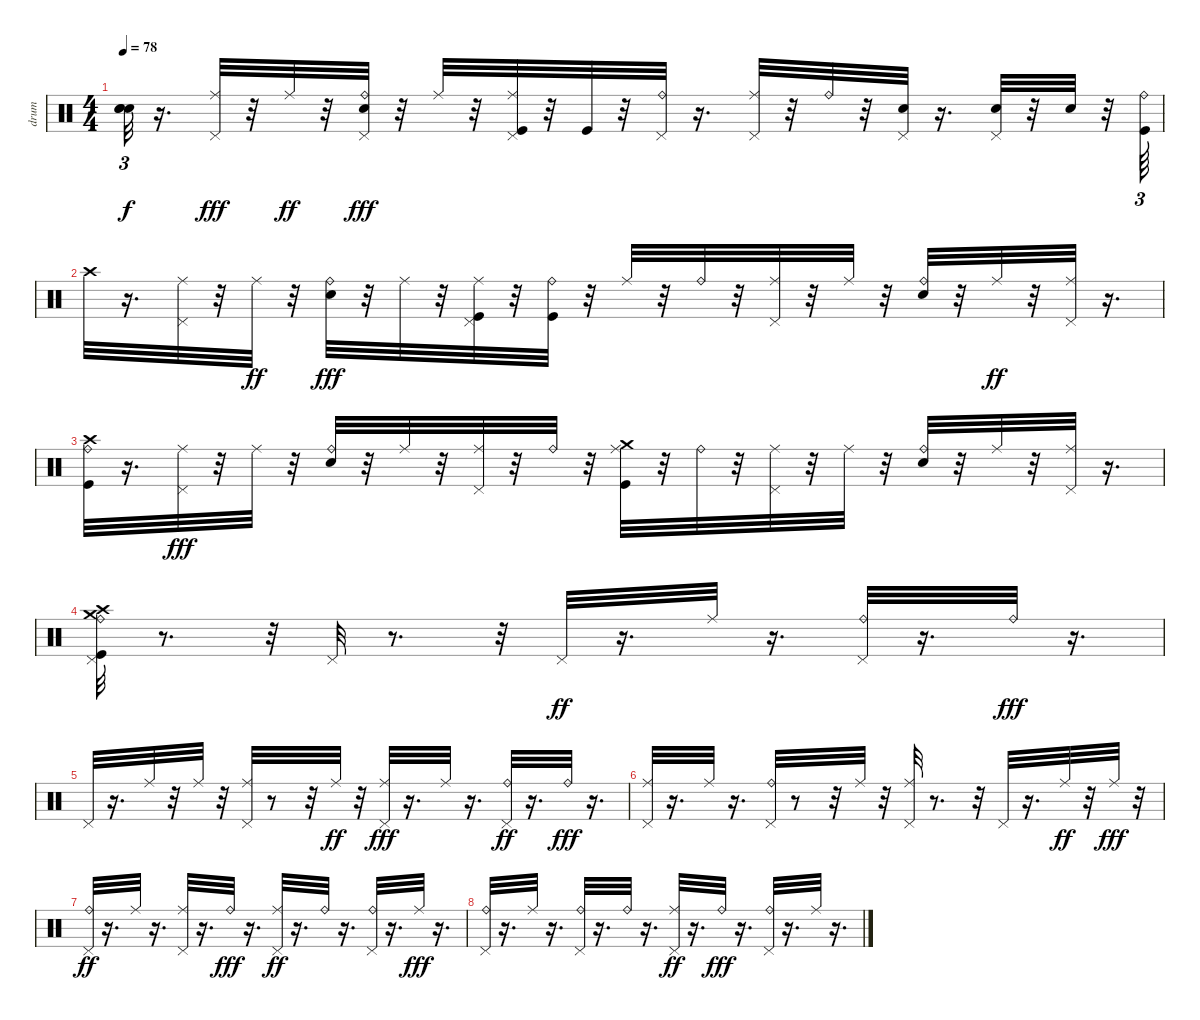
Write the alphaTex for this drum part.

\track ("drum" "drum") {instrument percussion}
\staff {score}
\articulation defaults
\ts (4 4)
\tempo 78
\clef neutral
\ks c
("Snare (hit)"{t} "Snare (hit)"{t} "Snare (hit)"{t}).32{tu (3 2) dy f} r.16{d} ("Ride (middle)" "Pedal Hi-Hat (hit)").32{dy fff} r.32 "Ride (middle)".32{dy ff} r.32 ("Ride (bell)" "Pedal Hi-Hat (hit)" "Electric Snare (hit)").32{dy fff} r.32 "Ride (middle)".32 r.32 ("Ride (middle)" "Pedal Hi-Hat (hit)" "Kick (hit)").32 r.32 "Kick (hit)".32 r.32 ("Ride (bell)" "Pedal Hi-Hat (hit)").32 r.16{d} ("Ride (middle)" "Pedal Hi-Hat (hit)").32 r.32 "Ride (bell)".32 r.32 ("Pedal Hi-Hat (hit)" "Electric Snare (hit)").32 r.16{d} ("Pedal Hi-Hat (hit)" "Electric Snare (hit)").32 r.32 "Electric Snare (hit)".32 r.32 ("Ride (bell)" "Kick (hit)").64{tu (3 2)} |
"Crash high (hit)".32 r.16{d} ("Ride (middle)" "Pedal Hi-Hat (hit)").32 r.32 "Ride (middle)".32{dy ff} r.32 ("Ride (bell)" "Electric Snare (hit)").32{dy fff} r.32 "Ride (middle)".32 r.32 ("Ride (middle)" "Pedal Hi-Hat (hit)" "Kick (hit)").32 r.32 ("Ride (bell)" "Kick (hit)").32 r.32 "Ride (middle)".32 r.32 "Ride (bell)".32 r.32 ("Ride (middle)" "Pedal Hi-Hat (hit)").32 r.32 "Ride (middle)".32 r.32 ("Ride (bell)" "Electric Snare (hit)").32 r.32 "Ride (middle)".32{dy ff} r.32 ("Ride (middle)" "Pedal Hi-Hat (hit)").32 r.16{d} |
("Ride (bell)" "Crash high (hit)" "Kick (hit)").32 r.16{d} ("Ride (middle)" "Pedal Hi-Hat (hit)").32{dy fff} r.32 "Ride (middle)".32 r.32 ("Ride (bell)" "Electric Snare (hit)").32 r.32 "Ride (middle)".32 r.32 ("Ride (middle)" "Pedal Hi-Hat (hit)").32 r.32 "Ride (bell)".32 r.32 ("Ride (middle)" "Crash medium (hit)" "Kick (hit)").32 r.32 "Ride (bell)".32 r.32 ("Ride (middle)" "Pedal Hi-Hat (hit)").32 r.32 "Ride (middle)".32 r.32 ("Ride (bell)" "Electric Snare (hit)").32 r.32 "Ride (middle)".32 r.32 ("Ride (middle)" "Pedal Hi-Hat (hit)").32 r.16{d} |
("Ride (bell)" "Pedal Hi-Hat (hit)" "Crash high (hit)" "Kick (hit)" "Crash medium (hit)").32 r.8{d} r.32 "Pedal Hi-Hat (hit)".32 r.8{d} r.32 "Pedal Hi-Hat (hit)".32{dy ff} r.16{d} "Ride (middle)".32 r.16{d} ("Ride (bell)" "Pedal Hi-Hat (hit)").32 r.16{d} "Ride (bell)".32{dy fff} r.16{d} |
"Pedal Hi-Hat (hit)".32 r.16{d} "Ride (middle)".32 r.32 "Ride (middle)".32 r.32 ("Ride (middle)" "Pedal Hi-Hat (hit)").32 r.8 r.32 "Ride (middle)".32{dy ff} r.32 ("Ride (middle)" "Pedal Hi-Hat (hit)").32{dy fff} r.16{d} "Ride (middle)".32 r.16{d} ("Ride (bell)" "Pedal Hi-Hat (hit)").32{dy ff} r.16{d} "Ride (bell)".32{dy fff} r.16{d} |
("Ride (middle)" "Pedal Hi-Hat (hit)").32 r.16{d} "Ride (middle)".32 r.16{d} ("Ride (bell)" "Pedal Hi-Hat (hit)").32 r.8 r.32 "Ride (middle)".32 r.32 ("Ride (middle)" "Pedal Hi-Hat (hit)").32 r.8{d} r.32 "Pedal Hi-Hat (hit)".32 r.16{d} "Ride (middle)".32{dy ff} r.32 "Ride (middle)".32{dy fff} r.32 |
("Ride (bell)" "Pedal Hi-Hat (hit)").32{dy ff} r.16{d} "Ride (middle)".32 r.16{d} ("Ride (middle)" "Pedal Hi-Hat (hit)").32 r.16{d} "Ride (bell)".32{dy fff} r.16{d} ("Ride (middle)" "Pedal Hi-Hat (hit)").32{dy ff} r.16{d} "Ride (bell)".32 r.16{d} ("Ride (bell)" "Pedal Hi-Hat (hit)").32 r.16{d} "Ride (middle)".32{dy fff} r.16{d} |
("Ride (bell)" "Pedal Hi-Hat (hit)").32 r.16{d} "Ride (middle)".32 r.16{d} ("Ride (bell)" "Pedal Hi-Hat (hit)").32 r.16{d} "Ride (bell)".32 r.16{d} ("Ride (middle)" "Pedal Hi-Hat (hit)").32{dy ff} r.16{d} "Ride (bell)".32{dy fff} r.16{d} ("Ride (bell)" "Pedal Hi-Hat (hit)").32 r.16{d} "Ride (middle)".32 r.16{d}
